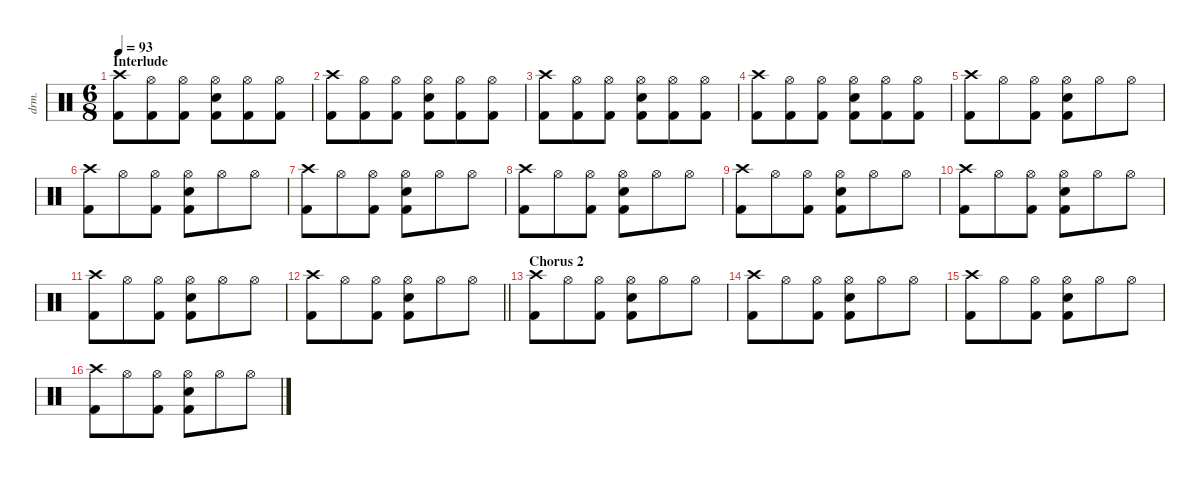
\defaultSystemsLayout 4
\hideDynamics
\bracketExtendMode nobrackets
\otherSystemsTrackNameOrientation horizontal
\track ("Drums" "drm.") {instrument percussion}
\staff {score}
\articulation defaults
\ts (6 8)
\section ("" "Interlude")
\tempo 93
\clef neutral
\ks c
("Crash high (hit)" "Kick (hit) 2").8{dy f beam Down} ("Hi-Hat (open)" "Kick (hit) 2").8{beam Down} ("Hi-Hat (open)" "Kick (hit) 2").8{beam Down} ("Hi-Hat (open)" "Snare (hit) 2" "Kick (hit) 2").8{beam Down} ("Hi-Hat (open)" "Kick (hit) 2").8{beam Down} ("Hi-Hat (open)" "Kick (hit) 2").8{beam Down} |
("Crash high (hit)" "Kick (hit) 2").8{beam Down} ("Hi-Hat (open)" "Kick (hit) 2").8{beam Down} ("Hi-Hat (open)" "Kick (hit) 2").8{beam Down} ("Hi-Hat (open)" "Snare (hit) 2" "Kick (hit) 2").8{beam Down} ("Hi-Hat (open)" "Kick (hit) 2").8{beam Down} ("Hi-Hat (open)" "Kick (hit) 2").8{beam Down} |
("Crash high (hit)" "Kick (hit) 2").8{beam Down} ("Hi-Hat (open)" "Kick (hit) 2").8{beam Down} ("Hi-Hat (open)" "Kick (hit) 2").8{beam Down} ("Hi-Hat (open)" "Snare (hit) 2" "Kick (hit) 2").8{beam Down} ("Hi-Hat (open)" "Kick (hit) 2").8{beam Down} ("Hi-Hat (open)" "Kick (hit) 2").8{beam Down} |
("Crash high (hit)" "Kick (hit) 2").8{beam Down} ("Hi-Hat (open)" "Kick (hit) 2").8{beam Down} ("Hi-Hat (open)" "Kick (hit) 2").8{beam Down} ("Hi-Hat (open)" "Snare (hit) 2" "Kick (hit) 2").8{beam Down} ("Hi-Hat (open)" "Kick (hit) 2").8{beam Down} ("Hi-Hat (open)" "Kick (hit) 2").8{beam Down} |
("Crash high (hit)" "Kick (hit) 2").8{beam Down} "Hi-Hat (open)".8{beam Down} ("Hi-Hat (open)" "Kick (hit) 2").8{beam Down} ("Hi-Hat (open)" "Snare (hit) 2" "Kick (hit) 2").8{beam Down} "Hi-Hat (open)".8{beam Down} "Hi-Hat (open)".8{beam Down} |
("Crash high (hit)" "Kick (hit) 2").8{beam Down} "Hi-Hat (open)".8{beam Down} ("Hi-Hat (open)" "Kick (hit) 2").8{beam Down} ("Hi-Hat (open)" "Snare (hit) 2" "Kick (hit) 2").8{beam Down} "Hi-Hat (open)".8{beam Down} "Hi-Hat (open)".8{beam Down} |
("Crash high (hit)" "Kick (hit) 2").8{beam Down} "Hi-Hat (open)".8{beam Down} ("Hi-Hat (open)" "Kick (hit) 2").8{beam Down} ("Hi-Hat (open)" "Snare (hit) 2" "Kick (hit) 2").8{beam Down} "Hi-Hat (open)".8{beam Down} "Hi-Hat (open)".8{beam Down} |
("Crash high (hit)" "Kick (hit) 2").8{beam Down} "Hi-Hat (open)".8{beam Down} ("Hi-Hat (open)" "Kick (hit) 2").8{beam Down} ("Hi-Hat (open)" "Snare (hit) 2" "Kick (hit) 2").8{beam Down} "Hi-Hat (open)".8{beam Down} "Hi-Hat (open)".8{beam Down} |
("Crash high (hit)" "Kick (hit) 2").8{beam Down} "Hi-Hat (open)".8{beam Down} ("Hi-Hat (open)" "Kick (hit) 2").8{beam Down} ("Hi-Hat (open)" "Snare (hit) 2" "Kick (hit) 2").8{beam Down} "Hi-Hat (open)".8{beam Down} "Hi-Hat (open)".8{beam Down} |
("Crash high (hit)" "Kick (hit) 2").8{beam Down} "Hi-Hat (open)".8{beam Down} ("Hi-Hat (open)" "Kick (hit) 2").8{beam Down} ("Hi-Hat (open)" "Snare (hit) 2" "Kick (hit) 2").8{beam Down} "Hi-Hat (open)".8{beam Down} "Hi-Hat (open)".8{beam Down} |
("Crash high (hit)" "Kick (hit) 2").8{beam Down} "Hi-Hat (open)".8{beam Down} ("Hi-Hat (open)" "Kick (hit) 2").8{beam Down} ("Hi-Hat (open)" "Snare (hit) 2" "Kick (hit) 2").8{beam Down} "Hi-Hat (open)".8{beam Down} "Hi-Hat (open)".8{beam Down} |
\barLineRight lightlight
("Crash high (hit)" "Kick (hit) 2").8{beam Down} "Hi-Hat (open)".8{beam Down} ("Hi-Hat (open)" "Kick (hit) 2").8{beam Down} ("Hi-Hat (open)" "Snare (hit) 2" "Kick (hit) 2").8{beam Down} "Hi-Hat (open)".8{beam Down} "Hi-Hat (open)".8{beam Down} |
\section ("" "Chorus 2")
("Crash high (hit)" "Kick (hit) 2").8{beam Down} "Hi-Hat (open)".8{beam Down} ("Hi-Hat (open)" "Kick (hit) 2").8{beam Down} ("Hi-Hat (open)" "Snare (hit) 2" "Kick (hit) 2").8{beam Down} "Hi-Hat (open)".8{beam Down} "Hi-Hat (open)".8{beam Down} |
("Crash high (hit)" "Kick (hit) 2").8{beam Down} "Hi-Hat (open)".8{beam Down} ("Hi-Hat (open)" "Kick (hit) 2").8{beam Down} ("Hi-Hat (open)" "Snare (hit) 2" "Kick (hit) 2").8{beam Down} "Hi-Hat (open)".8{beam Down} "Hi-Hat (open)".8{beam Down} |
("Crash high (hit)" "Kick (hit) 2").8{beam Down} "Hi-Hat (open)".8{beam Down} ("Hi-Hat (open)" "Kick (hit) 2").8{beam Down} ("Hi-Hat (open)" "Snare (hit) 2" "Kick (hit) 2").8{beam Down} "Hi-Hat (open)".8{beam Down} "Hi-Hat (open)".8{beam Down} |
("Crash high (hit)" "Kick (hit) 2").8{beam Down} "Hi-Hat (open)".8{beam Down} ("Hi-Hat (open)" "Kick (hit) 2").8{beam Down} ("Hi-Hat (open)" "Snare (hit) 2" "Kick (hit) 2").8{beam Down} "Hi-Hat (open)".8{beam Down} "Hi-Hat (open)".8{beam Down}
